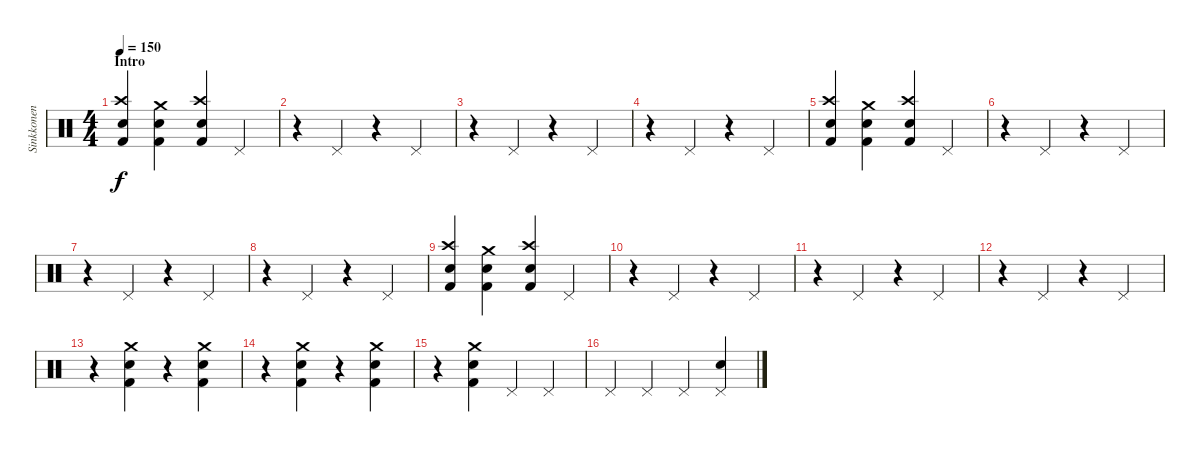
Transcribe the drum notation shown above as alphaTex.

\track ("Sinkkonen" "Sinkkonen") {instrument percussion}
\staff {score}
\articulation defaults
\ts (4 4)
\section ("" "Intro")
\tempo 150
\clef neutral
\ks c
("Kick (hit) 2" "Crash high (hit)" "Snare (hit) 2").4{dy f} ("Kick (hit) 2" "Crash medium (hit)" "Snare (hit) 2").4 ("Kick (hit) 2" "Crash high (hit)" "Snare (hit) 2").4 "Pedal Hi-Hat (hit)".4 |
r.4 "Pedal Hi-Hat (hit)".4 r.4 "Pedal Hi-Hat (hit)".4 |
r.4 "Pedal Hi-Hat (hit)".4 r.4 "Pedal Hi-Hat (hit)".4 |
r.4 "Pedal Hi-Hat (hit)".4 r.4 "Pedal Hi-Hat (hit)".4 |
("Kick (hit) 2" "Crash high (hit)" "Snare (hit) 2").4 ("Kick (hit) 2" "Crash medium (hit)" "Snare (hit) 2").4 ("Kick (hit) 2" "Crash high (hit)" "Snare (hit) 2").4 "Pedal Hi-Hat (hit)".4 |
r.4 "Pedal Hi-Hat (hit)".4 r.4 "Pedal Hi-Hat (hit)".4 |
r.4 "Pedal Hi-Hat (hit)".4 r.4 "Pedal Hi-Hat (hit)".4 |
r.4 "Pedal Hi-Hat (hit)".4 r.4 "Pedal Hi-Hat (hit)".4 |
("Kick (hit) 2" "Crash high (hit)" "Snare (hit) 2").4 ("Kick (hit) 2" "Crash medium (hit)" "Snare (hit) 2").4 ("Kick (hit) 2" "Crash high (hit)" "Snare (hit) 2").4 "Pedal Hi-Hat (hit)".4 |
r.4 "Pedal Hi-Hat (hit)".4 r.4 "Pedal Hi-Hat (hit)".4 |
r.4 "Pedal Hi-Hat (hit)".4 r.4 "Pedal Hi-Hat (hit)".4 |
r.4 "Pedal Hi-Hat (hit)".4 r.4 "Pedal Hi-Hat (hit)".4 |
r.4 ("Kick (hit) 2" "Crash medium (hit)" "Snare (hit) 2").4 r.4 ("Kick (hit) 2" "Crash medium (hit)" "Snare (hit) 2").4 |
r.4 ("Kick (hit) 2" "Crash medium (hit)" "Snare (hit) 2").4 r.4 ("Kick (hit) 2" "Crash medium (hit)" "Snare (hit) 2").4 |
r.4 ("Kick (hit) 2" "Crash medium (hit)" "Snare (hit) 2").4 "Pedal Hi-Hat (hit)".4 "Pedal Hi-Hat (hit)".4 |
"Pedal Hi-Hat (hit)".4 "Pedal Hi-Hat (hit)".4 "Pedal Hi-Hat (hit)".4 ("Pedal Hi-Hat (hit)" "Snare (hit) 2").4
